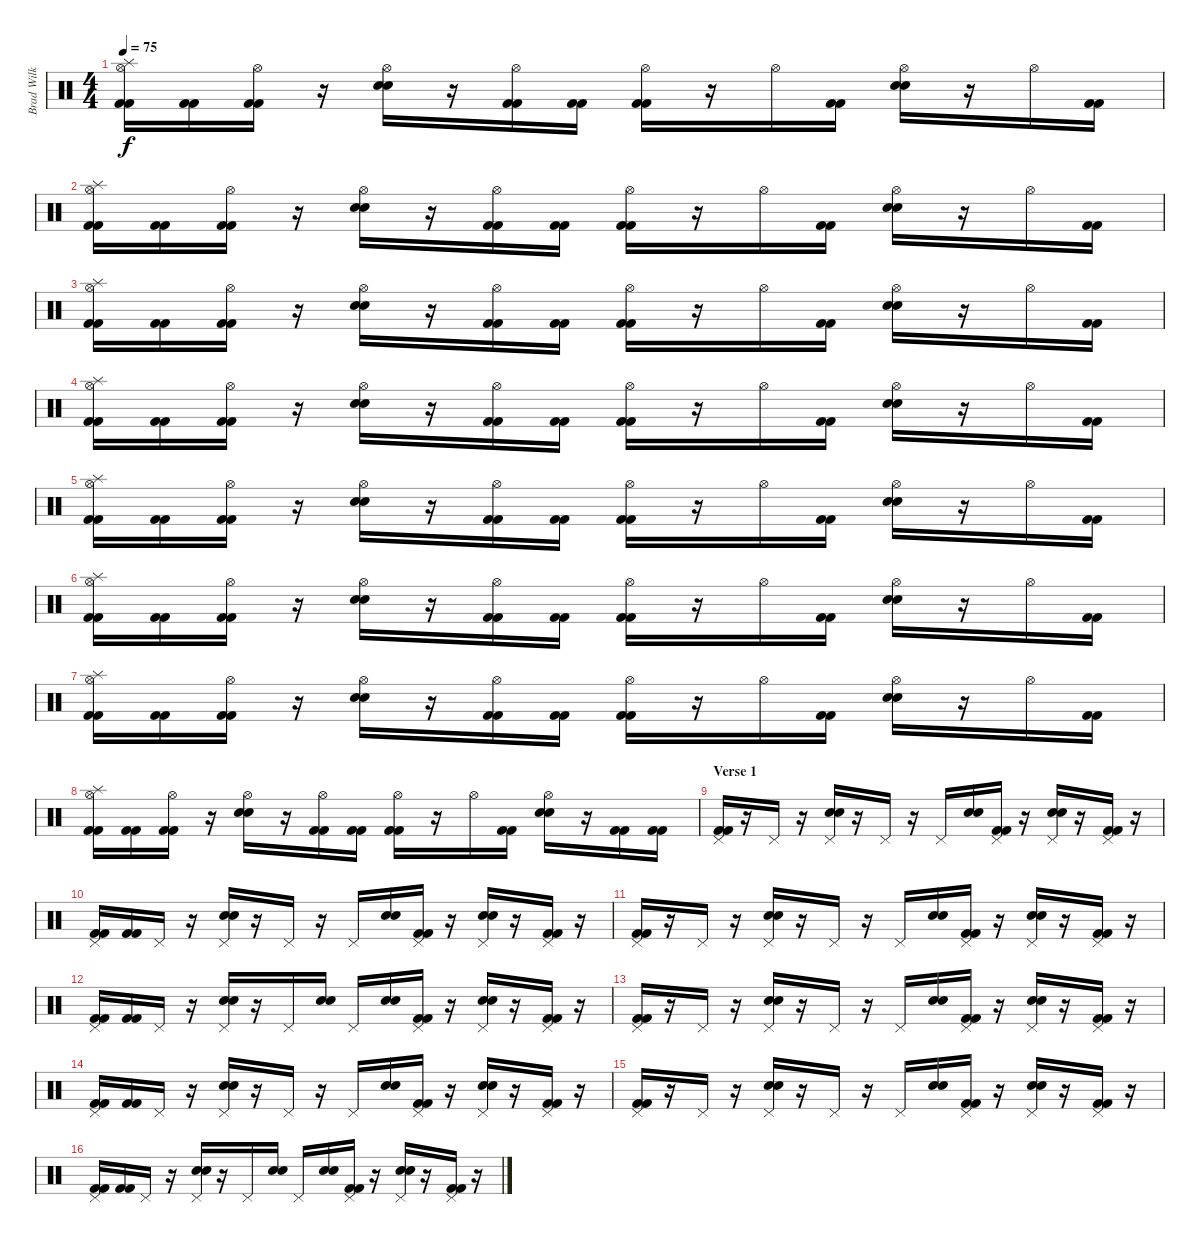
\track ("Brad Wilk" "Brad Wilk") {instrument percussion}
\staff {score}
\articulation defaults
\ts (4 4)
\tempo 75
\clef neutral
\ks c
("Hi-Hat (open)" "Splash (hit)" "Kick (hit) 2" "Kick (hit) 2").16{dy f} ("Kick (hit) 2" "Kick (hit) 2").16 ("Hi-Hat (open)" "Kick (hit) 2" "Kick (hit) 2").16 r.16 ("Hi-Hat (open)" "Electric Snare (hit)" "Electric Snare (hit)").16 r.16 ("Hi-Hat (open)" "Kick (hit) 2" "Kick (hit) 2").16 ("Kick (hit) 2" "Kick (hit) 2").16 ("Hi-Hat (open)" "Kick (hit) 2" "Kick (hit) 2").16 r.16 "Hi-Hat (open)".16 ("Kick (hit) 2" "Kick (hit) 2").16 ("Hi-Hat (open)" "Electric Snare (hit)" "Electric Snare (hit)").16 r.16 "Hi-Hat (open)".16 ("Kick (hit) 2" "Kick (hit) 2").16 |
("Hi-Hat (open)" "Splash (hit)" "Kick (hit) 2" "Kick (hit) 2").16 ("Kick (hit) 2" "Kick (hit) 2").16 ("Hi-Hat (open)" "Kick (hit) 2" "Kick (hit) 2").16 r.16 ("Hi-Hat (open)" "Electric Snare (hit)" "Electric Snare (hit)").16 r.16 ("Hi-Hat (open)" "Kick (hit) 2" "Kick (hit) 2").16 ("Kick (hit) 2" "Kick (hit) 2").16 ("Hi-Hat (open)" "Kick (hit) 2" "Kick (hit) 2").16 r.16 "Hi-Hat (open)".16 ("Kick (hit) 2" "Kick (hit) 2").16 ("Hi-Hat (open)" "Electric Snare (hit)" "Electric Snare (hit)").16 r.16 "Hi-Hat (open)".16 ("Kick (hit) 2" "Kick (hit) 2").16 |
("Hi-Hat (open)" "Splash (hit)" "Kick (hit) 2" "Kick (hit) 2").16 ("Kick (hit) 2" "Kick (hit) 2").16 ("Hi-Hat (open)" "Kick (hit) 2" "Kick (hit) 2").16 r.16 ("Hi-Hat (open)" "Electric Snare (hit)" "Electric Snare (hit)").16 r.16 ("Hi-Hat (open)" "Kick (hit) 2" "Kick (hit) 2").16 ("Kick (hit) 2" "Kick (hit) 2").16 ("Hi-Hat (open)" "Kick (hit) 2" "Kick (hit) 2").16 r.16 "Hi-Hat (open)".16 ("Kick (hit) 2" "Kick (hit) 2").16 ("Hi-Hat (open)" "Electric Snare (hit)" "Electric Snare (hit)").16 r.16 "Hi-Hat (open)".16 ("Kick (hit) 2" "Kick (hit) 2").16 |
("Hi-Hat (open)" "Splash (hit)" "Kick (hit) 2" "Kick (hit) 2").16 ("Kick (hit) 2" "Kick (hit) 2").16 ("Hi-Hat (open)" "Kick (hit) 2" "Kick (hit) 2").16 r.16 ("Hi-Hat (open)" "Electric Snare (hit)" "Electric Snare (hit)").16 r.16 ("Hi-Hat (open)" "Kick (hit) 2" "Kick (hit) 2").16 ("Kick (hit) 2" "Kick (hit) 2").16 ("Hi-Hat (open)" "Kick (hit) 2" "Kick (hit) 2").16 r.16 "Hi-Hat (open)".16 ("Kick (hit) 2" "Kick (hit) 2").16 ("Hi-Hat (open)" "Electric Snare (hit)" "Electric Snare (hit)").16 r.16 "Hi-Hat (open)".16 ("Kick (hit) 2" "Kick (hit) 2").16 |
("Hi-Hat (open)" "Splash (hit)" "Kick (hit) 2" "Kick (hit) 2").16 ("Kick (hit) 2" "Kick (hit) 2").16 ("Hi-Hat (open)" "Kick (hit) 2" "Kick (hit) 2").16 r.16 ("Hi-Hat (open)" "Electric Snare (hit)" "Electric Snare (hit)").16 r.16 ("Hi-Hat (open)" "Kick (hit) 2" "Kick (hit) 2").16 ("Kick (hit) 2" "Kick (hit) 2").16 ("Hi-Hat (open)" "Kick (hit) 2" "Kick (hit) 2").16 r.16 "Hi-Hat (open)".16 ("Kick (hit) 2" "Kick (hit) 2").16 ("Hi-Hat (open)" "Electric Snare (hit)" "Electric Snare (hit)").16 r.16 "Hi-Hat (open)".16 ("Kick (hit) 2" "Kick (hit) 2").16 |
("Hi-Hat (open)" "Splash (hit)" "Kick (hit) 2" "Kick (hit) 2").16 ("Kick (hit) 2" "Kick (hit) 2").16 ("Hi-Hat (open)" "Kick (hit) 2" "Kick (hit) 2").16 r.16 ("Hi-Hat (open)" "Electric Snare (hit)" "Electric Snare (hit)").16 r.16 ("Hi-Hat (open)" "Kick (hit) 2" "Kick (hit) 2").16 ("Kick (hit) 2" "Kick (hit) 2").16 ("Hi-Hat (open)" "Kick (hit) 2" "Kick (hit) 2").16 r.16 "Hi-Hat (open)".16 ("Kick (hit) 2" "Kick (hit) 2").16 ("Hi-Hat (open)" "Electric Snare (hit)" "Electric Snare (hit)").16 r.16 "Hi-Hat (open)".16 ("Kick (hit) 2" "Kick (hit) 2").16 |
("Hi-Hat (open)" "Splash (hit)" "Kick (hit) 2" "Kick (hit) 2").16 ("Kick (hit) 2" "Kick (hit) 2").16 ("Hi-Hat (open)" "Kick (hit) 2" "Kick (hit) 2").16 r.16 ("Hi-Hat (open)" "Electric Snare (hit)" "Electric Snare (hit)").16 r.16 ("Hi-Hat (open)" "Kick (hit) 2" "Kick (hit) 2").16 ("Kick (hit) 2" "Kick (hit) 2").16 ("Hi-Hat (open)" "Kick (hit) 2" "Kick (hit) 2").16 r.16 "Hi-Hat (open)".16 ("Kick (hit) 2" "Kick (hit) 2").16 ("Hi-Hat (open)" "Electric Snare (hit)" "Electric Snare (hit)").16 r.16 "Hi-Hat (open)".16 ("Kick (hit) 2" "Kick (hit) 2").16 |
("Hi-Hat (open)" "Splash (hit)" "Kick (hit) 2" "Kick (hit) 2").16 ("Kick (hit) 2" "Kick (hit) 2").16 ("Hi-Hat (open)" "Kick (hit) 2" "Kick (hit) 2").16 r.16 ("Hi-Hat (open)" "Electric Snare (hit)" "Electric Snare (hit)").16 r.16 ("Hi-Hat (open)" "Kick (hit) 2" "Kick (hit) 2").16 ("Kick (hit) 2" "Kick (hit) 2").16 ("Hi-Hat (open)" "Kick (hit) 2" "Kick (hit) 2").16 r.16 "Hi-Hat (open)".16 ("Kick (hit) 2" "Kick (hit) 2").16 ("Hi-Hat (open)" "Electric Snare (hit)" "Electric Snare (hit)").16 r.16 ("Kick (hit) 2" "Kick (hit) 2").16 ("Kick (hit) 2" "Kick (hit) 2").16 |
\section ("" "Verse 1")
("Pedal Hi-Hat (hit)" "Kick (hit) 2" "Kick (hit) 2").16{volume 16} r.16 "Pedal Hi-Hat (hit)".16 r.16 ("Pedal Hi-Hat (hit)" "Electric Snare (hit)" "Electric Snare (hit)").16 r.16 "Pedal Hi-Hat (hit)".16 r.16 "Pedal Hi-Hat (hit)".16 ("Electric Snare (hit)" "Electric Snare (hit)").16 ("Pedal Hi-Hat (hit)" "Kick (hit) 2" "Kick (hit) 2").16 r.16 ("Pedal Hi-Hat (hit)" "Electric Snare (hit)" "Electric Snare (hit)").16 r.16 ("Pedal Hi-Hat (hit)" "Kick (hit) 2" "Kick (hit) 2").16 r.16 |
("Pedal Hi-Hat (hit)" "Kick (hit) 2" "Kick (hit) 2").16 ("Kick (hit) 2" "Kick (hit) 2").16 "Pedal Hi-Hat (hit)".16 r.16 ("Pedal Hi-Hat (hit)" "Electric Snare (hit)" "Electric Snare (hit)").16 r.16 "Pedal Hi-Hat (hit)".16 r.16 "Pedal Hi-Hat (hit)".16 ("Electric Snare (hit)" "Electric Snare (hit)").16 ("Pedal Hi-Hat (hit)" "Kick (hit) 2" "Kick (hit) 2").16 r.16 ("Pedal Hi-Hat (hit)" "Electric Snare (hit)" "Electric Snare (hit)").16 r.16 ("Pedal Hi-Hat (hit)" "Kick (hit) 2" "Kick (hit) 2").16 r.16 |
("Pedal Hi-Hat (hit)" "Kick (hit) 2" "Kick (hit) 2").16 r.16 "Pedal Hi-Hat (hit)".16 r.16 ("Pedal Hi-Hat (hit)" "Electric Snare (hit)" "Electric Snare (hit)").16 r.16 "Pedal Hi-Hat (hit)".16 r.16 "Pedal Hi-Hat (hit)".16 ("Electric Snare (hit)" "Electric Snare (hit)").16 ("Pedal Hi-Hat (hit)" "Kick (hit) 2" "Kick (hit) 2").16 r.16 ("Pedal Hi-Hat (hit)" "Electric Snare (hit)" "Electric Snare (hit)").16 r.16 ("Pedal Hi-Hat (hit)" "Kick (hit) 2" "Kick (hit) 2").16 r.16 |
("Pedal Hi-Hat (hit)" "Kick (hit) 2" "Kick (hit) 2").16 ("Kick (hit) 2" "Kick (hit) 2").16 "Pedal Hi-Hat (hit)".16 r.16 ("Pedal Hi-Hat (hit)" "Electric Snare (hit)" "Electric Snare (hit)").16 r.16 "Pedal Hi-Hat (hit)".16 ("Electric Snare (hit)" "Electric Snare (hit)").16 "Pedal Hi-Hat (hit)".16 ("Electric Snare (hit)" "Electric Snare (hit)").16 ("Pedal Hi-Hat (hit)" "Kick (hit) 2" "Kick (hit) 2").16 r.16 ("Pedal Hi-Hat (hit)" "Electric Snare (hit)" "Electric Snare (hit)").16 r.16 ("Pedal Hi-Hat (hit)" "Kick (hit) 2" "Kick (hit) 2").16 r.16 |
("Pedal Hi-Hat (hit)" "Kick (hit) 2" "Kick (hit) 2").16 r.16 "Pedal Hi-Hat (hit)".16 r.16 ("Pedal Hi-Hat (hit)" "Electric Snare (hit)" "Electric Snare (hit)").16 r.16 "Pedal Hi-Hat (hit)".16 r.16 "Pedal Hi-Hat (hit)".16 ("Electric Snare (hit)" "Electric Snare (hit)").16 ("Pedal Hi-Hat (hit)" "Kick (hit) 2" "Kick (hit) 2").16 r.16 ("Pedal Hi-Hat (hit)" "Electric Snare (hit)" "Electric Snare (hit)").16 r.16 ("Pedal Hi-Hat (hit)" "Kick (hit) 2" "Kick (hit) 2").16 r.16 |
("Pedal Hi-Hat (hit)" "Kick (hit) 2" "Kick (hit) 2").16 ("Kick (hit) 2" "Kick (hit) 2").16 "Pedal Hi-Hat (hit)".16 r.16 ("Pedal Hi-Hat (hit)" "Electric Snare (hit)" "Electric Snare (hit)").16 r.16 "Pedal Hi-Hat (hit)".16 r.16 "Pedal Hi-Hat (hit)".16 ("Electric Snare (hit)" "Electric Snare (hit)").16 ("Pedal Hi-Hat (hit)" "Kick (hit) 2" "Kick (hit) 2").16 r.16 ("Pedal Hi-Hat (hit)" "Electric Snare (hit)" "Electric Snare (hit)").16 r.16 ("Pedal Hi-Hat (hit)" "Kick (hit) 2" "Kick (hit) 2").16 r.16 |
("Pedal Hi-Hat (hit)" "Kick (hit) 2" "Kick (hit) 2").16 r.16 "Pedal Hi-Hat (hit)".16 r.16 ("Pedal Hi-Hat (hit)" "Electric Snare (hit)" "Electric Snare (hit)").16 r.16 "Pedal Hi-Hat (hit)".16 r.16 "Pedal Hi-Hat (hit)".16 ("Electric Snare (hit)" "Electric Snare (hit)").16 ("Pedal Hi-Hat (hit)" "Kick (hit) 2" "Kick (hit) 2").16 r.16 ("Pedal Hi-Hat (hit)" "Electric Snare (hit)" "Electric Snare (hit)").16 r.16 ("Pedal Hi-Hat (hit)" "Kick (hit) 2" "Kick (hit) 2").16 r.16 |
("Pedal Hi-Hat (hit)" "Kick (hit) 2" "Kick (hit) 2").16 ("Kick (hit) 2" "Kick (hit) 2").16 "Pedal Hi-Hat (hit)".16 r.16 ("Pedal Hi-Hat (hit)" "Electric Snare (hit)" "Electric Snare (hit)").16 r.16 "Pedal Hi-Hat (hit)".16 ("Electric Snare (hit)" "Electric Snare (hit)").16 "Pedal Hi-Hat (hit)".16 ("Electric Snare (hit)" "Electric Snare (hit)").16 ("Pedal Hi-Hat (hit)" "Kick (hit) 2" "Kick (hit) 2").16 r.16 ("Pedal Hi-Hat (hit)" "Electric Snare (hit)" "Electric Snare (hit)").16 r.16 ("Pedal Hi-Hat (hit)" "Kick (hit) 2" "Kick (hit) 2").16 r.16
